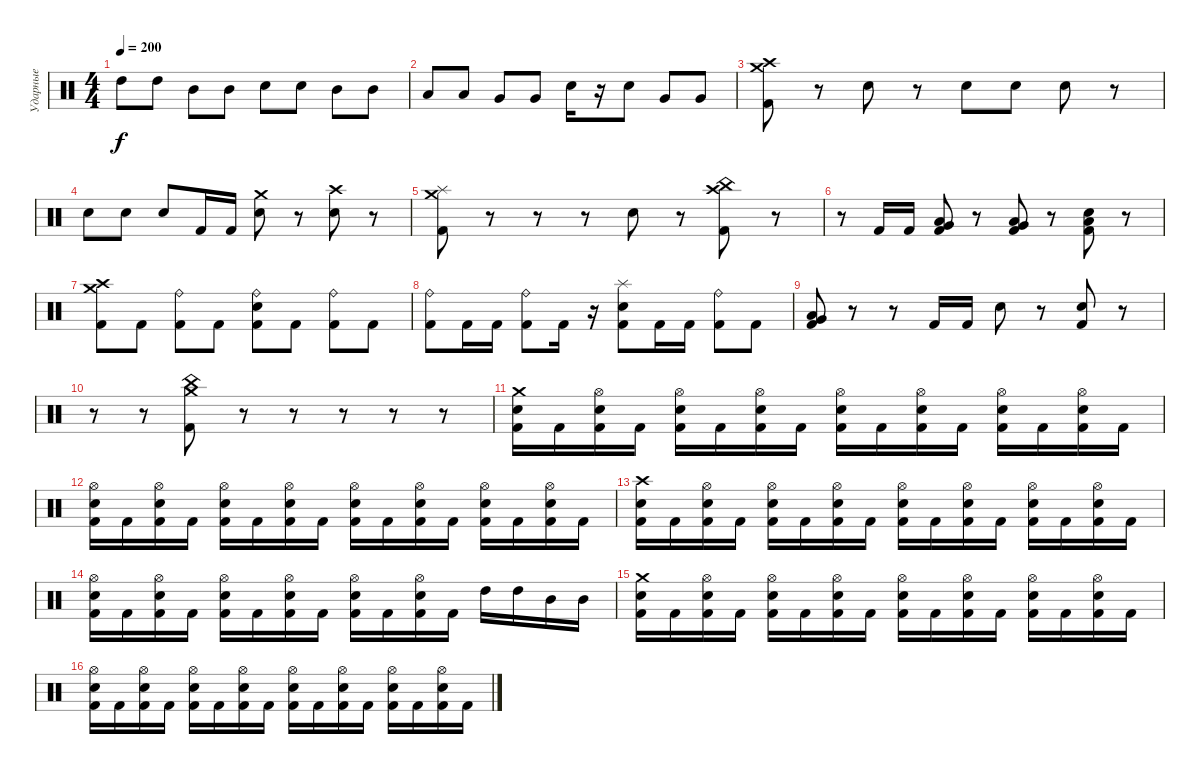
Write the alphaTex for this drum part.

\track ("Ударные" "Ударные") {instrument percussion}
\staff {score}
\articulation defaults
\ts (4 4)
\tempo 200
\clef neutral
\ks c "High Tom (hit)".8{dy f} "High Tom (hit)".8 "Mid Tom (hit)".8 "Mid Tom (hit)".8 "Electric Snare (hit)".8 "Electric Snare (hit)".8 "Mid Tom (hit)".8 "Mid Tom (hit)".8
|
"Low Tom (hit)".8 "Low Tom (hit)".8 "Very Low Tom (hit)".8 "Very Low Tom (hit)".8 "Electric Snare (hit)".16 r.16 "Electric Snare (hit)".8 "Very Low Tom (hit)".8 "Very Low Tom (hit)".8 |
("Kick (hit) 2" "Crash high (hit)" "Crash medium (hit)").8 r.8 "Electric Snare (hit)".8 r.8 "Electric Snare (hit)".8 "Electric Snare (hit)".8 "Electric Snare (hit)".8 r.8 |
"Electric Snare (hit)".8 "Electric Snare (hit)".8 "Electric Snare (hit)".8 "Kick (hit) 2".16 "Kick (hit) 2".16 ("Electric Snare (hit)" "Crash medium (hit)").8 r.8 ("Electric Snare (hit)" "Crash high (hit)").8 r.8 |
("Kick (hit) 2" "Crash medium (hit)" "Splash (hit)").8 r.8 r.8 r.8 "Electric Snare (hit)".8 r.8 ("Kick (hit) 2" "Crash high (hit)" "China (hit)").8 r.8 |
r.8 "Kick (hit) 2".16 "Kick (hit) 2".16 ("Kick (hit) 2" "Low Floor Tom (hit)" "Very Low Tom (hit)").8 r.8 ("Kick (hit) 2" "Low Floor Tom (hit)" "Very Low Tom (hit)").8 r.8 ("Kick (hit) 2" "Low Floor Tom (hit)" "Electric Snare (hit)").8 r.8 |
("Kick (hit) 2" "Crash high (hit)" "Crash medium (hit)").8 "Kick (hit) 2".8 ("Kick (hit) 2" "Ride (bell)").8 "Kick (hit) 2".8 ("Kick (hit) 2" "Electric Snare (hit)" "Ride (bell)").8 "Kick (hit) 2".8 ("Kick (hit) 2" "Ride (bell)").8 "Kick (hit) 2".8 |
("Kick (hit) 2" "Ride (bell)").8 "Kick (hit) 2".16 "Kick (hit) 2".16 ("Kick (hit) 2" "Ride (bell)").8 "Kick (hit) 2".16 r.16 ("Kick (hit) 2" "Electric Snare (hit)" "Splash (hit)").8 "Kick (hit) 2".16 "Kick (hit) 2".16 ("Kick (hit) 2" "Ride (bell)").8 "Kick (hit) 2".8 |
("Kick (hit) 2" "Low Floor Tom (hit)" "Very Low Tom (hit)").8 r.8 r.8 "Kick (hit) 2".16 "Kick (hit) 2".16 "Electric Snare (hit)".8 r.8 ("Kick (hit) 2" "Electric Snare (hit)").8 r.8 |
r.8 r.8 ("Kick (hit) 2" "Crash medium (hit)" "China (hit)").8 r.8 r.8 r.8 r.8 r.8 |
("Kick (hit) 2" "Electric Snare (hit)" "Crash medium (hit)").16 "Kick (hit) 2".16 ("Kick (hit) 2" "Electric Snare (hit)" "Hi-Hat (open)").16 "Kick (hit) 2".16 ("Kick (hit) 2" "Electric Snare (hit)" "Hi-Hat (open)").16 "Kick (hit) 2".16 ("Kick (hit) 2" "Electric Snare (hit)" "Hi-Hat (open)").16 "Kick (hit) 2".16 ("Kick (hit) 2" "Electric Snare (hit)" "Hi-Hat (open)").16 "Kick (hit) 2".16 ("Kick (hit) 2" "Electric Snare (hit)" "Hi-Hat (open)").16 "Kick (hit) 2".16 ("Kick (hit) 2" "Electric Snare (hit)" "Hi-Hat (open)").16 "Kick (hit) 2".16 ("Kick (hit) 2" "Electric Snare (hit)" "Hi-Hat (open)").16 "Kick (hit) 2".16 |
("Kick (hit) 2" "Electric Snare (hit)" "Hi-Hat (open)").16 "Kick (hit) 2".16 ("Kick (hit) 2" "Electric Snare (hit)" "Hi-Hat (open)").16 "Kick (hit) 2".16 ("Kick (hit) 2" "Electric Snare (hit)" "Hi-Hat (open)").16 "Kick (hit) 2".16 ("Kick (hit) 2" "Electric Snare (hit)" "Hi-Hat (open)").16 "Kick (hit) 2".16 ("Kick (hit) 2" "Electric Snare (hit)" "Hi-Hat (open)").16 "Kick (hit) 2".16 ("Kick (hit) 2" "Electric Snare (hit)" "Hi-Hat (open)").16 "Kick (hit) 2".16 ("Kick (hit) 2" "Electric Snare (hit)" "Hi-Hat (open)").16 "Kick (hit) 2".16 ("Kick (hit) 2" "Electric Snare (hit)" "Hi-Hat (open)").16 "Kick (hit) 2".16 |
("Kick (hit) 2" "Electric Snare (hit)" "Crash high (hit)").16 "Kick (hit) 2".16 ("Kick (hit) 2" "Electric Snare (hit)" "Hi-Hat (open)").16 "Kick (hit) 2".16 ("Kick (hit) 2" "Electric Snare (hit)" "Hi-Hat (open)").16 "Kick (hit) 2".16 ("Kick (hit) 2" "Electric Snare (hit)" "Hi-Hat (open)").16 "Kick (hit) 2".16 ("Kick (hit) 2" "Electric Snare (hit)" "Hi-Hat (open)").16 "Kick (hit) 2".16 ("Kick (hit) 2" "Electric Snare (hit)" "Hi-Hat (open)").16 "Kick (hit) 2".16 ("Kick (hit) 2" "Electric Snare (hit)" "Hi-Hat (open)").16 "Kick (hit) 2".16 ("Kick (hit) 2" "Electric Snare (hit)" "Hi-Hat (open)").16 "Kick (hit) 2".16 |
("Kick (hit) 2" "Electric Snare (hit)" "Hi-Hat (open)").16 "Kick (hit) 2".16 ("Kick (hit) 2" "Electric Snare (hit)" "Hi-Hat (open)").16 "Kick (hit) 2".16 ("Kick (hit) 2" "Electric Snare (hit)" "Hi-Hat (open)").16 "Kick (hit) 2".16 ("Kick (hit) 2" "Electric Snare (hit)" "Hi-Hat (open)").16 "Kick (hit) 2".16 ("Kick (hit) 2" "Electric Snare (hit)" "Hi-Hat (open)").16 "Kick (hit) 2".16 ("Kick (hit) 2" "Electric Snare (hit)" "Hi-Hat (open)").16 "Kick (hit) 2".16 "High Tom (hit)".16 "High Tom (hit)".16 "Mid Tom (hit)".16 "Mid Tom (hit)".16 |
("Kick (hit) 2" "Electric Snare (hit)" "Crash medium (hit)").16 "Kick (hit) 2".16 ("Kick (hit) 2" "Electric Snare (hit)" "Hi-Hat (open)").16 "Kick (hit) 2".16 ("Kick (hit) 2" "Electric Snare (hit)" "Hi-Hat (open)").16 "Kick (hit) 2".16 ("Kick (hit) 2" "Electric Snare (hit)" "Hi-Hat (open)").16 "Kick (hit) 2".16 ("Kick (hit) 2" "Electric Snare (hit)" "Hi-Hat (open)").16 "Kick (hit) 2".16 ("Kick (hit) 2" "Electric Snare (hit)" "Hi-Hat (open)").16 "Kick (hit) 2".16 ("Kick (hit) 2" "Electric Snare (hit)" "Hi-Hat (open)").16 "Kick (hit) 2".16 ("Kick (hit) 2" "Electric Snare (hit)" "Hi-Hat (open)").16 "Kick (hit) 2".16 |
("Kick (hit) 2" "Electric Snare (hit)" "Hi-Hat (open)").16 "Kick (hit) 2".16 ("Kick (hit) 2" "Electric Snare (hit)" "Hi-Hat (open)").16 "Kick (hit) 2".16 ("Kick (hit) 2" "Electric Snare (hit)" "Hi-Hat (open)").16 "Kick (hit) 2".16 ("Kick (hit) 2" "Electric Snare (hit)" "Hi-Hat (open)").16 "Kick (hit) 2".16 ("Kick (hit) 2" "Electric Snare (hit)" "Hi-Hat (open)").16 "Kick (hit) 2".16 ("Kick (hit) 2" "Electric Snare (hit)" "Hi-Hat (open)").16 "Kick (hit) 2".16 ("Kick (hit) 2" "Electric Snare (hit)" "Hi-Hat (open)").16 "Kick (hit) 2".16 ("Kick (hit) 2" "Electric Snare (hit)" "Hi-Hat (open)").16 "Kick (hit) 2".16
